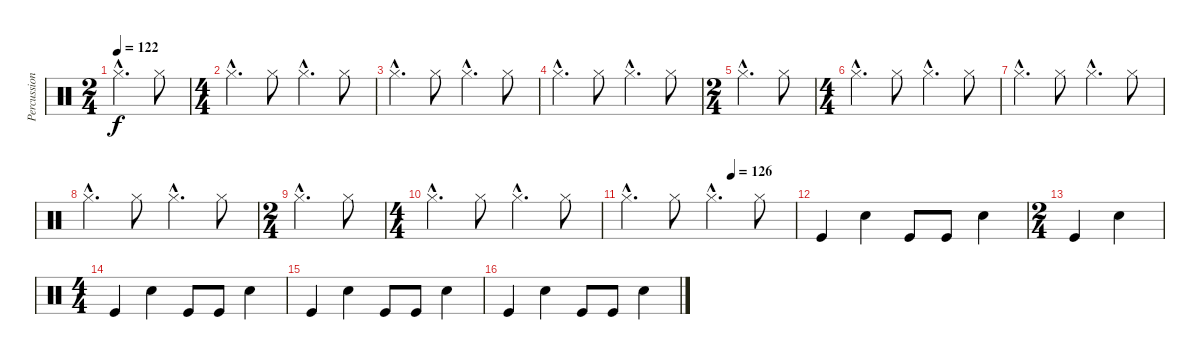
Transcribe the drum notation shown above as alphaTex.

\track ("Percussion" "Percussion") {instrument percussion}
\staff {score}
\articulation defaults
\ts (2 4)
\tempo 122
\clef neutral
\ks c "Hi-Hat (closed)"{hac}.4{d dy f} "Hi-Hat (closed)".8
|
\ts (4 4)
"Hi-Hat (closed)"{hac}.4{d} "Hi-Hat (closed)".8 "Hi-Hat (closed)"{hac}.4{d} "Hi-Hat (closed)".8 |
"Hi-Hat (closed)"{hac}.4{d} "Hi-Hat (closed)".8 "Hi-Hat (closed)"{hac}.4{d} "Hi-Hat (closed)".8 |
"Hi-Hat (closed)"{hac}.4{d} "Hi-Hat (closed)".8 "Hi-Hat (closed)"{hac}.4{d} "Hi-Hat (closed)".8 |
\ts (2 4)
"Hi-Hat (closed)"{hac}.4{d} "Hi-Hat (closed)".8 |
\ts (4 4)
"Hi-Hat (closed)"{hac}.4{d} "Hi-Hat (closed)".8 "Hi-Hat (closed)"{hac}.4{d} "Hi-Hat (closed)".8 |
"Hi-Hat (closed)"{hac}.4{d} "Hi-Hat (closed)".8 "Hi-Hat (closed)"{hac}.4{d} "Hi-Hat (closed)".8 |
"Hi-Hat (closed)"{hac}.4{d} "Hi-Hat (closed)".8 "Hi-Hat (closed)"{hac}.4{d} "Hi-Hat (closed)".8 |
\ts (2 4)
"Hi-Hat (closed)"{hac}.4{d} "Hi-Hat (closed)".8 |
\ts (4 4)
"Hi-Hat (closed)"{hac}.4{d} "Hi-Hat (closed)".8 "Hi-Hat (closed)"{hac}.4{d} "Hi-Hat (closed)".8 |
\tempo (126 0.625)
"Hi-Hat (closed)"{hac}.4{d} "Hi-Hat (closed)".8 "Hi-Hat (closed)"{hac}.4{d} "Hi-Hat (closed)".8 |
"Kick (hit)".4 "Snare (hit) 2".4 "Kick (hit)".8 "Kick (hit)".8 "Snare (hit) 2".4 |
\ts (2 4)
"Kick (hit)".4 "Snare (hit) 2".4 |
\ts (4 4)
"Kick (hit)".4 "Snare (hit) 2".4 "Kick (hit)".8 "Kick (hit)".8 "Snare (hit) 2".4 |
"Kick (hit)".4 "Snare (hit) 2".4 "Kick (hit)".8 "Kick (hit)".8 "Snare (hit) 2".4 |
"Kick (hit)".4 "Snare (hit) 2".4 "Kick (hit)".8 "Kick (hit)".8 "Snare (hit) 2".4
